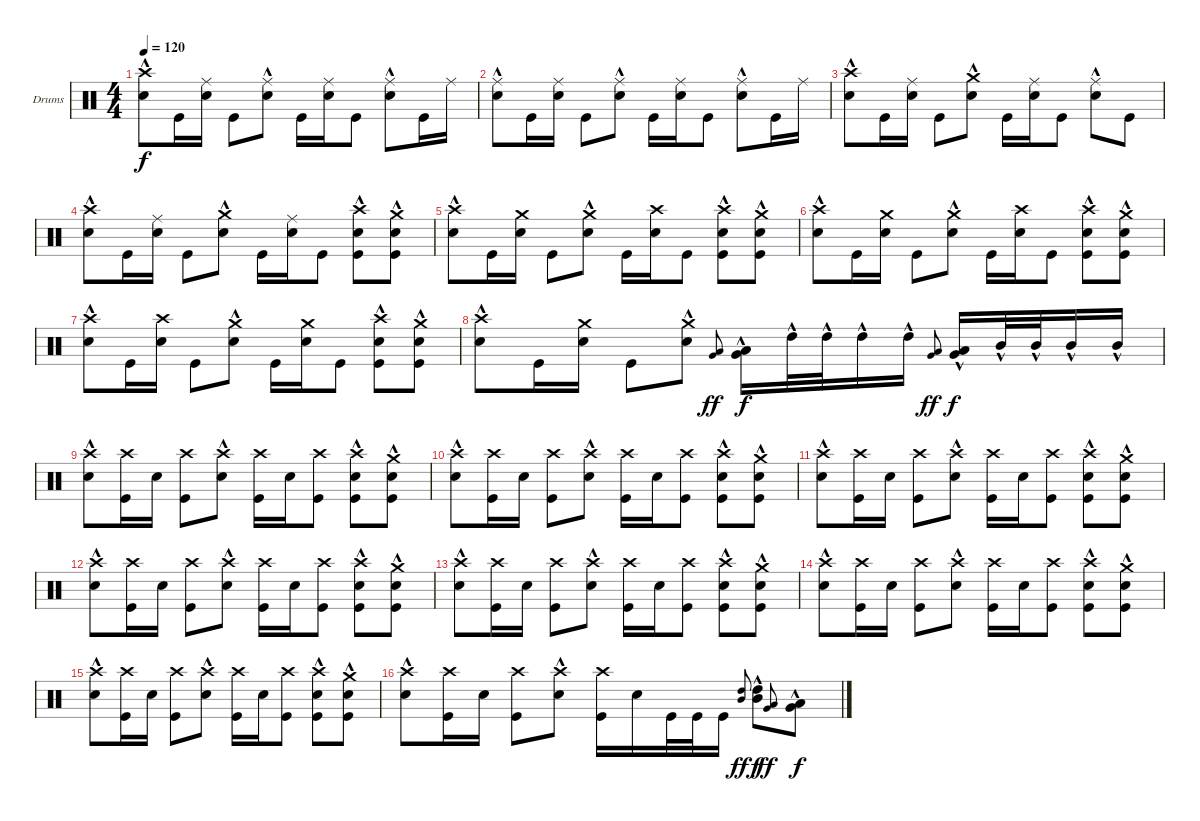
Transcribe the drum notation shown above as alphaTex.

\bracketExtendMode groupsimilarinstruments
\firstSystemTrackNameOrientation horizontal
\otherSystemsTrackNameOrientation horizontal
\track ("Drumkit (Christoph)" "Drums") {instrument percussion}
\staff {score}
\articulation defaults
\ts (4 4)
\tempo 120
\clef neutral
\ks c
("Crash high (hit)" "Snare (hit) 2"{hac}).8{dy f} "Kick (hit)".16 ("Ride (middle)" "Snare (hit) 2").16 "Kick (hit)".8 ("Ride (middle)" "Snare (hit) 2"{hac}).8 "Kick (hit)".16 ("Ride (middle)" "Snare (hit) 2").16 "Kick (hit)".8 ("Ride (middle)" "Snare (hit) 2"{hac}).8 "Kick (hit)".16 "Ride (middle)".16 |
("Ride (middle)" "Snare (hit) 2"{hac}).8 "Kick (hit)".16 ("Ride (middle)" "Snare (hit) 2").16 "Kick (hit)".8 ("Ride (middle)" "Snare (hit) 2"{hac}).8 "Kick (hit)".16 ("Ride (middle)" "Snare (hit) 2").16 "Kick (hit)".8 ("Ride (middle)" "Snare (hit) 2"{hac}).8 "Kick (hit)".16 "Ride (middle)".16 |
("Crash high (hit)" "Snare (hit) 2"{hac}).8 "Kick (hit)".16 ("Ride (middle)" "Snare (hit) 2").16 "Kick (hit)".8 ("Crash medium (hit)" "Snare (hit) 2"{hac}).8 "Kick (hit)".16 ("Ride (middle)" "Snare (hit) 2").16 "Kick (hit)".8 ("Ride (middle)" "Snare (hit) 2"{hac}).8 "Kick (hit)".8 |
("Crash high (hit)" "Snare (hit) 2"{hac}).8 "Kick (hit)".16 ("Ride (middle)" "Snare (hit) 2").16 "Kick (hit)".8 ("Crash medium (hit)" "Snare (hit) 2"{hac}).8 "Kick (hit)".16 ("Ride (middle)" "Snare (hit) 2").16 "Kick (hit)".8 ("Crash high (hit)" "Kick (hit)" "Snare (hit) 2"{hac}).8 ("Crash medium (hit)" "Kick (hit)" "Snare (hit) 2"{hac}).8 |
("Crash high (hit)" "Snare (hit) 2"{hac}).8 "Kick (hit)".16 ("Crash medium (hit)" "Snare (hit) 2").16 "Kick (hit)".8 ("Crash medium (hit)" "Snare (hit) 2"{hac}).8 "Kick (hit)".16 ("Crash high (hit)" "Snare (hit) 2").16 "Kick (hit)".8 ("Crash high (hit)" "Kick (hit)" "Snare (hit) 2"{hac}).8 ("Crash medium (hit)" "Kick (hit)" "Snare (hit) 2"{hac}).8 |
("Crash high (hit)" "Snare (hit) 2"{hac}).8 "Kick (hit)".16 ("Crash medium (hit)" "Snare (hit) 2").16 "Kick (hit)".8 ("Crash medium (hit)" "Snare (hit) 2"{hac}).8 "Kick (hit)".16 ("Crash high (hit)" "Snare (hit) 2").16 "Kick (hit)".8 ("Crash high (hit)" "Kick (hit)" "Snare (hit) 2"{hac}).8 ("Crash medium (hit)" "Kick (hit)" "Snare (hit) 2"{hac}).8 |
("Crash high (hit)" "Snare (hit) 2"{hac}).8 "Kick (hit)".16 ("Crash high (hit)" "Snare (hit) 2").16 "Kick (hit)".8 ("Crash medium (hit)" "Snare (hit) 2"{hac}).8 "Kick (hit)".16 ("Crash medium (hit)" "Snare (hit) 2").16 "Kick (hit)".8 ("Crash high (hit)" "Kick (hit)" "Snare (hit) 2"{hac}).8 ("Crash medium (hit)" "Kick (hit)" "Snare (hit) 2"{hac}).8 |
("Crash high (hit)" "Snare (hit) 2"{hac}).8 "Kick (hit)".16 ("Crash medium (hit)" "Snare (hit) 2").16 "Kick (hit)".8 ("Crash medium (hit)" "Snare (hit) 2"{hac}).8 ("Low Tom (hit)" "Very Low Tom (hit)").8{gr onbeat dy ff} ("Low Tom (hit)"{hac} "Very Low Tom (hit)"{hac}).16{dy f} "High Tom (hit)"{hac}.32 "High Tom (hit)"{hac}.32 "High Tom (hit)"{hac}.16 "High Tom (hit)"{hac}.16 ("Low Tom (hit)" "Very Low Tom (hit)").8{gr onbeat dy ff} ("Low Tom (hit)"{hac} "Very Low Tom (hit)"{hac}).16{dy f} "Mid Tom (hit)"{hac}.32 "Mid Tom (hit)"{hac}.32 "Mid Tom (hit)"{hac}.16 "Mid Tom (hit)"{hac}.16 |
("Crash high (hit)" "Snare (hit) 2"{hac}).8 ("Crash high (hit)" "Kick (hit)").16 "Snare (hit) 2".16 ("Crash high (hit)" "Kick (hit)").8 ("Crash high (hit)" "Snare (hit) 2"{hac}).8 ("Crash high (hit)" "Kick (hit)").16 "Snare (hit) 2".16 ("Crash high (hit)" "Kick (hit)").8 ("Crash high (hit)" "Kick (hit)" "Snare (hit) 2"{hac}).8 ("Crash medium (hit)" "Kick (hit)" "Snare (hit) 2"{hac}).8 |
("Crash high (hit)" "Snare (hit) 2"{hac}).8 ("Crash high (hit)" "Kick (hit)").16 "Snare (hit) 2".16 ("Crash high (hit)" "Kick (hit)").8 ("Crash high (hit)" "Snare (hit) 2"{hac}).8 ("Crash high (hit)" "Kick (hit)").16 "Snare (hit) 2".16 ("Crash high (hit)" "Kick (hit)").8 ("Crash high (hit)" "Kick (hit)" "Snare (hit) 2"{hac}).8 ("Crash medium (hit)" "Kick (hit)" "Snare (hit) 2"{hac}).8 |
("Crash high (hit)" "Snare (hit) 2"{hac}).8 ("Crash high (hit)" "Kick (hit)").16 "Snare (hit) 2".16 ("Crash high (hit)" "Kick (hit)").8 ("Crash high (hit)" "Snare (hit) 2"{hac}).8 ("Crash high (hit)" "Kick (hit)").16 "Snare (hit) 2".16 ("Crash high (hit)" "Kick (hit)").8 ("Crash high (hit)" "Kick (hit)" "Snare (hit) 2"{hac}).8 ("Crash medium (hit)" "Kick (hit)" "Snare (hit) 2"{hac}).8 |
("Crash high (hit)" "Snare (hit) 2"{hac}).8 ("Crash high (hit)" "Kick (hit)").16 "Snare (hit) 2".16 ("Crash high (hit)" "Kick (hit)").8 ("Crash high (hit)" "Snare (hit) 2"{hac}).8 ("Crash high (hit)" "Kick (hit)").16 "Snare (hit) 2".16 ("Crash high (hit)" "Kick (hit)").8 ("Crash high (hit)" "Kick (hit)" "Snare (hit) 2"{hac}).8 ("Crash medium (hit)" "Kick (hit)" "Snare (hit) 2"{hac}).8 |
("Crash high (hit)" "Snare (hit) 2"{hac}).8 ("Crash high (hit)" "Kick (hit)").16 "Snare (hit) 2".16 ("Crash high (hit)" "Kick (hit)").8 ("Crash high (hit)" "Snare (hit) 2"{hac}).8 ("Crash high (hit)" "Kick (hit)").16 "Snare (hit) 2".16 ("Crash high (hit)" "Kick (hit)").8 ("Crash high (hit)" "Kick (hit)" "Snare (hit) 2"{hac}).8 ("Crash medium (hit)" "Kick (hit)" "Snare (hit) 2"{hac}).8 |
("Crash high (hit)" "Snare (hit) 2"{hac}).8 ("Crash high (hit)" "Kick (hit)").16 "Snare (hit) 2".16 ("Crash high (hit)" "Kick (hit)").8 ("Crash high (hit)" "Snare (hit) 2"{hac}).8 ("Crash high (hit)" "Kick (hit)").16 "Snare (hit) 2".16 ("Crash high (hit)" "Kick (hit)").8 ("Crash high (hit)" "Kick (hit)" "Snare (hit) 2"{hac}).8 ("Crash medium (hit)" "Kick (hit)" "Snare (hit) 2"{hac}).8 |
("Crash high (hit)" "Snare (hit) 2"{hac}).8 ("Crash high (hit)" "Kick (hit)").16 "Snare (hit) 2".16 ("Crash high (hit)" "Kick (hit)").8 ("Crash high (hit)" "Snare (hit) 2"{hac}).8 ("Crash high (hit)" "Kick (hit)").16 "Snare (hit) 2".16 ("Crash high (hit)" "Kick (hit)").8 ("Crash high (hit)" "Kick (hit)" "Snare (hit) 2"{hac}).8 ("Crash medium (hit)" "Kick (hit)" "Snare (hit) 2"{hac}).8 |
("Crash high (hit)" "Snare (hit) 2"{hac}).8 ("Crash high (hit)" "Kick (hit)").16 "Snare (hit) 2".16 ("Crash high (hit)" "Kick (hit)").8 ("Crash high (hit)" "Snare (hit) 2"{hac}).8 ("Crash high (hit)" "Kick (hit)").16 "Snare (hit) 2".16 "Kick (hit)".32 "Kick (hit)".32 "Kick (hit)".16 ("High Tom (hit)" "Mid Tom (hit)").8{gr onbeat dy ff} ("High Tom (hit)"{hac} "Mid Tom (hit)"{hac}).8{dy f} ("Low Tom (hit)" "Very Low Tom (hit)").8{gr onbeat dy ff} ("Low Tom (hit)"{hac} "Very Low Tom (hit)"{hac}).8{dy f}
